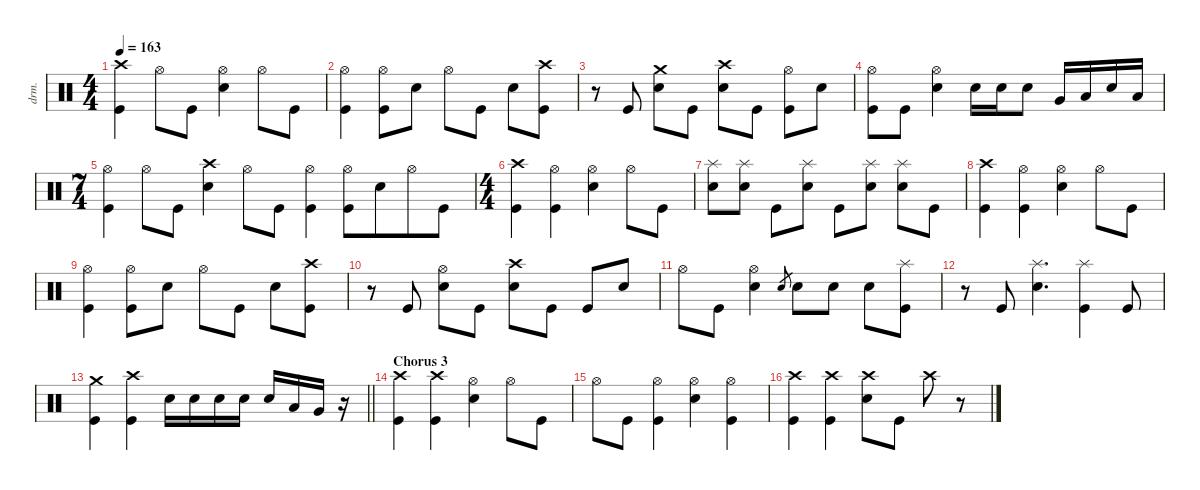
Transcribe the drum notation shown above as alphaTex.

\defaultSystemsLayout 4
\hideDynamics
\bracketExtendMode nobrackets
\otherSystemsTrackNameOrientation horizontal
\track ("Drums" "drm.") {instrument percussion}
\staff {score}
\articulation defaults
\ts (4 4)
\tempo 163
\clef neutral
\ks c
("Crash high (hit)" "Kick (hit)").4{dy f} "Hi-Hat (open)".8 "Kick (hit)".8 ("Hi-Hat (open)" "Snare (hit) 2").4 "Hi-Hat (open)".8 "Kick (hit)".8 |
("Hi-Hat (open)" "Kick (hit)").4 ("Hi-Hat (open)" "Kick (hit)").8 "Snare (hit) 2".8 "Hi-Hat (open)".8 "Kick (hit)".8 "Snare (hit) 2".8 ("Crash high (hit)" "Kick (hit)").8 |
r.8 "Kick (hit)".8 ("Crash medium (hit)" "Snare (hit) 2").8 "Kick (hit)".8 ("Crash high (hit)" "Snare (hit) 2").8 "Kick (hit)".8 ("Hi-Hat (open)" "Kick (hit)").8 "Snare (hit) 2".8 |
("Hi-Hat (open)" "Kick (hit)").8 "Kick (hit)".8 ("Hi-Hat (open)" "Snare (hit) 2").4 "Snare (hit) 2".16 "Snare (hit) 2".16 "Snare (hit) 2".8 "Very Low Tom (hit)".16 "Low Floor Tom (hit)".16 "Snare (hit) 2".16 "Low Floor Tom (hit)".16 |
\ts (7 4)
\beaming (8 2 2 2 8)
("Hi-Hat (open)" "Kick (hit)").4 "Hi-Hat (open)".8 "Kick (hit)".8 ("Crash high (hit)" "Snare (hit) 2").4 "Hi-Hat (open)".8 "Kick (hit)".8 ("Hi-Hat (open)" "Kick (hit)").4 ("Hi-Hat (open)" "Kick (hit)").8 "Snare (hit) 2".8 "Hi-Hat (open)".8 "Kick (hit)".8 |
\ts (4 4)
\beaming (8 2 2 2 2)
("Crash high (hit)" "Kick (hit)").4 ("Hi-Hat (open)" "Kick (hit)").4 ("Hi-Hat (open)" "Snare (hit) 2").4 "Hi-Hat (open)".8 "Kick (hit)".8 |
("Splash (hit)" "Snare (hit) 2").8 ("Splash (hit)" "Snare (hit) 2").8 "Kick (hit)".8 ("Splash (hit)" "Snare (hit) 2").8 "Kick (hit)".8 ("Splash (hit)" "Snare (hit) 2").8 ("Splash (hit)" "Snare (hit) 2").8 "Kick (hit)".8 |
("Crash high (hit)" "Kick (hit)").4 ("Hi-Hat (open)" "Kick (hit)").4 ("Hi-Hat (open)" "Snare (hit) 2").4 "Hi-Hat (open)".8 "Kick (hit)".8 |
("Hi-Hat (open)" "Kick (hit)").4 ("Hi-Hat (open)" "Kick (hit)").8 "Snare (hit) 2".8 "Hi-Hat (open)".8 "Kick (hit)".8 "Snare (hit) 2".8 ("Crash high (hit)" "Kick (hit)").8 |
r.8 "Kick (hit)".8 ("Hi-Hat (open)" "Snare (hit) 2").8 "Kick (hit)".8 ("Crash high (hit)" "Snare (hit) 2").8 "Kick (hit)".8 "Kick (hit)".8 "Snare (hit) 2".8 |
"Hi-Hat (open)".8 "Kick (hit)".8 ("Hi-Hat (open)" "Snare (hit) 2").4 "Electric Snare (hit)".8{gr dy mf} "Snare (hit) 2".8{dy f} "Snare (hit) 2".8 "Snare (hit) 2".8 ("Splash (hit)" "Kick (hit)").8 |
r.8 "Kick (hit)".8 ("Splash (hit)" "Snare (hit) 2").4{d} ("Splash (hit)" "Kick (hit)").4 "Kick (hit)".8 |
\barLineRight lightlight
("Crash medium (hit)" "Kick (hit)").4 ("Crash high (hit)" "Kick (hit)").4 "Snare (hit) 2".16 "Snare (hit) 2".16 "Snare (hit) 2".16 "Snare (hit) 2".16 "Snare (hit) 2".16 "Low Tom (hit)".16 "Very Low Tom (hit)".16 r.16 |
\section ("" "Chorus 3")
("Crash high (hit)" "Kick (hit)").4 ("Crash high (hit)" "Kick (hit)").4 ("Hi-Hat (open)" "Snare (hit) 2").4 "Hi-Hat (open)".8 "Kick (hit)".8 |
"Hi-Hat (open)".8 "Kick (hit)".8 ("Hi-Hat (open)" "Kick (hit)").4 ("Hi-Hat (open)" "Snare (hit) 2").4 ("Hi-Hat (open)" "Kick (hit)").4 |
("Crash high (hit)" "Kick (hit)").4 ("Crash high (hit)" "Kick (hit)").4 ("Crash high (hit)" "Snare (hit) 2").8 "Kick (hit)".8 "Crash high (hit)".8 r.8
